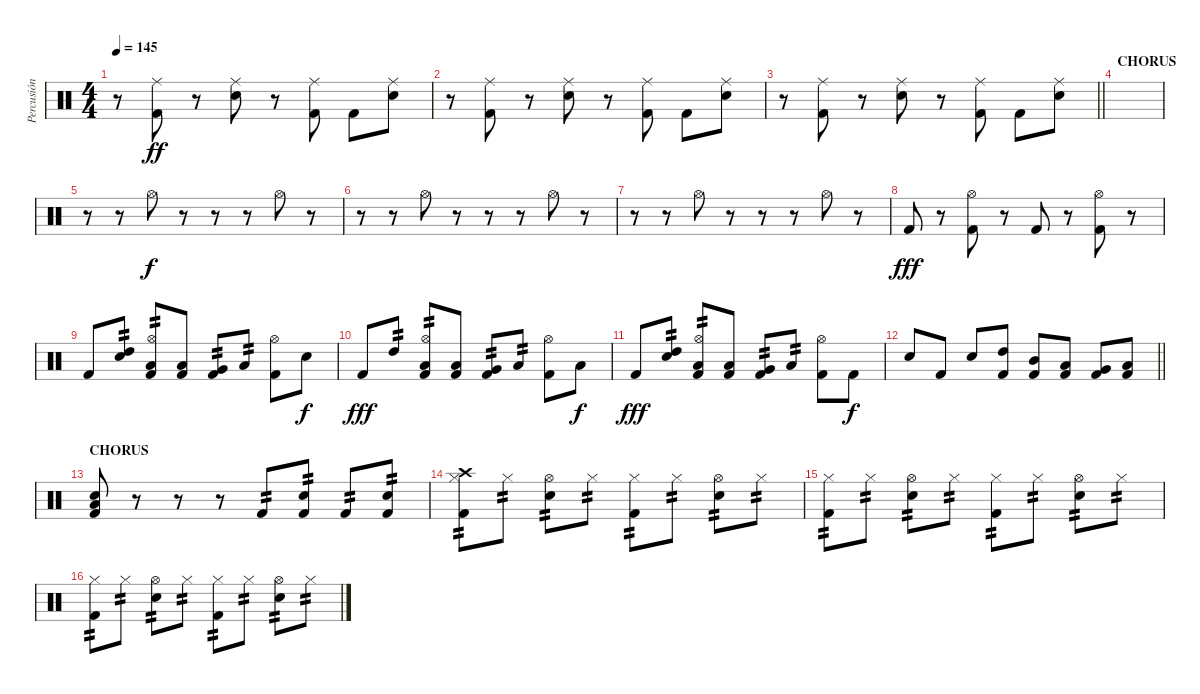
\track ("Percusión" "Percusión") {instrument percussion}
\staff {score}
\articulation defaults
\ts (4 4)
\tempo 145
\clef neutral
\ks c
r.8{dy ff} ("Ride (middle)" "Kick (hit) 2").8 r.8 ("Ride (middle)" "Snare (hit) 2").8 r.8 ("Ride (middle)" "Kick (hit) 2").8 "Kick (hit) 2".8 ("Ride (middle)" "Snare (hit) 2").8 |
r.8 ("Ride (middle)" "Kick (hit) 2").8 r.8 ("Ride (middle)" "Snare (hit) 2").8 r.8 ("Ride (middle)" "Kick (hit) 2").8 "Kick (hit) 2".8 ("Ride (middle)" "Snare (hit) 2").8 |
\barLineRight lightlight
r.8 ("Ride (middle)" "Kick (hit) 2").8 r.8 ("Ride (middle)" "Snare (hit) 2").8 r.8 ("Ride (middle)" "Kick (hit) 2").8 "Kick (hit) 2".8 ("Ride (middle)" "Snare (hit) 2").8 |
\section ("" "CHORUS")
|
r.8 r.8 "Hi-Hat (open)".8{dy f} r.8 r.8 r.8 "Hi-Hat (open)".8 r.8 |
r.8 r.8 "Hi-Hat (open)".8 r.8 r.8 r.8 "Hi-Hat (open)".8 r.8 |
r.8 r.8 "Hi-Hat (open)".8 r.8 r.8 r.8 "Hi-Hat (open)".8 r.8 |
"Kick (hit) 2".8{dy fff} r.8 ("Hi-Hat (open)" "Kick (hit) 2").8 r.8 "Kick (hit) 2".8 r.8 ("Hi-Hat (open)" "Kick (hit) 2").8 r.8 |
"Kick (hit) 2".8 ("Snare (hit) 2" "High Tom (hit)").8{tp 2} ("Hi-Hat (open)" "Low Tom (hit)" "Kick (hit) 2").8{tp 2} ("Low Tom (hit)" "Kick (hit) 2").8 ("Very Low Tom (hit)" "Kick (hit) 2").8{tp 2} "Low Floor Tom (hit)".8{tp 2} ("Hi-Hat (open)" "Kick (hit) 2").8 "Snare (hit) 2".8{dy f} |
"Kick (hit) 2".8{dy fff} "High Tom (hit)".8{tp 2} ("Hi-Hat (open)" "Low Tom (hit)" "Kick (hit) 2").8{tp 2} ("Low Tom (hit)" "Kick (hit) 2").8 ("Very Low Tom (hit)" "Kick (hit) 2").8{tp 2} "Low Floor Tom (hit)".8{tp 2} ("Hi-Hat (open)" "Kick (hit) 2").8 "Low Floor Tom (hit)".8{dy f} |
"Kick (hit) 2".8{dy fff} ("Snare (hit) 2" "High Tom (hit)").8{tp 2} ("Hi-Hat (open)" "Low Tom (hit)" "Kick (hit) 2").8{tp 2} ("Low Tom (hit)" "Kick (hit) 2").8 ("Very Low Tom (hit)" "Kick (hit) 2").8{tp 2} "Low Floor Tom (hit)".8{tp 2} ("Hi-Hat (open)" "Kick (hit) 2").8 "Kick (hit) 2".8{dy f} |
\barLineRight lightlight "Snare (hit) 2".8 "Kick (hit) 2".8 "Snare (hit) 2".8
("High Tom (hit)" "Kick (hit) 2").8 ("Mid Tom (hit)" "Kick (hit) 2").8 ("Low Tom (hit)" "Kick (hit) 2").8 ("Very Low Tom (hit)" "Kick (hit) 2").8 ("Low Floor Tom (hit)" "Kick (hit) 2").8 |
\section ("" "CHORUS")
("Snare (hit) 2" "Low Floor Tom (hit)" "Kick (hit) 2").8 r.8 r.8 r.8 "Kick (hit) 2".8{tp 2} ("Snare (hit) 2" "Kick (hit) 2").8{tp 2} "Kick (hit) 2".8{tp 2} ("Snare (hit) 2" "Kick (hit) 2").8{tp 2} |
("Hi-Hat (closed)" "Kick (hit) 2" "Crash high (hit)").8{tp 2} "Hi-Hat (closed)".8{tp 2} ("Hi-Hat (open)" "Snare (hit) 2").8{tp 2} "Hi-Hat (closed)".8{tp 2} ("Hi-Hat (closed)" "Kick (hit) 2").8{tp 2} "Hi-Hat (closed)".8{tp 2} ("Hi-Hat (open)" "Snare (hit) 2").8{tp 2} "Hi-Hat (closed)".8{tp 2} |
("Hi-Hat (closed)" "Kick (hit) 2").8{tp 2} "Hi-Hat (closed)".8{tp 2} ("Hi-Hat (open)" "Snare (hit) 2").8{tp 2} "Hi-Hat (closed)".8{tp 2} ("Hi-Hat (closed)" "Kick (hit) 2").8{tp 2} "Hi-Hat (closed)".8{tp 2} ("Hi-Hat (open)" "Snare (hit) 2").8{tp 2} "Hi-Hat (closed)".8{tp 2} |
("Hi-Hat (closed)" "Kick (hit) 2").8{tp 2} "Hi-Hat (closed)".8{tp 2} ("Hi-Hat (open)" "Snare (hit) 2").8{tp 2} "Hi-Hat (closed)".8{tp 2} ("Hi-Hat (closed)" "Kick (hit) 2").8{tp 2} "Hi-Hat (closed)".8{tp 2} ("Hi-Hat (open)" "Snare (hit) 2").8{tp 2} "Hi-Hat (closed)".8{tp 2}
